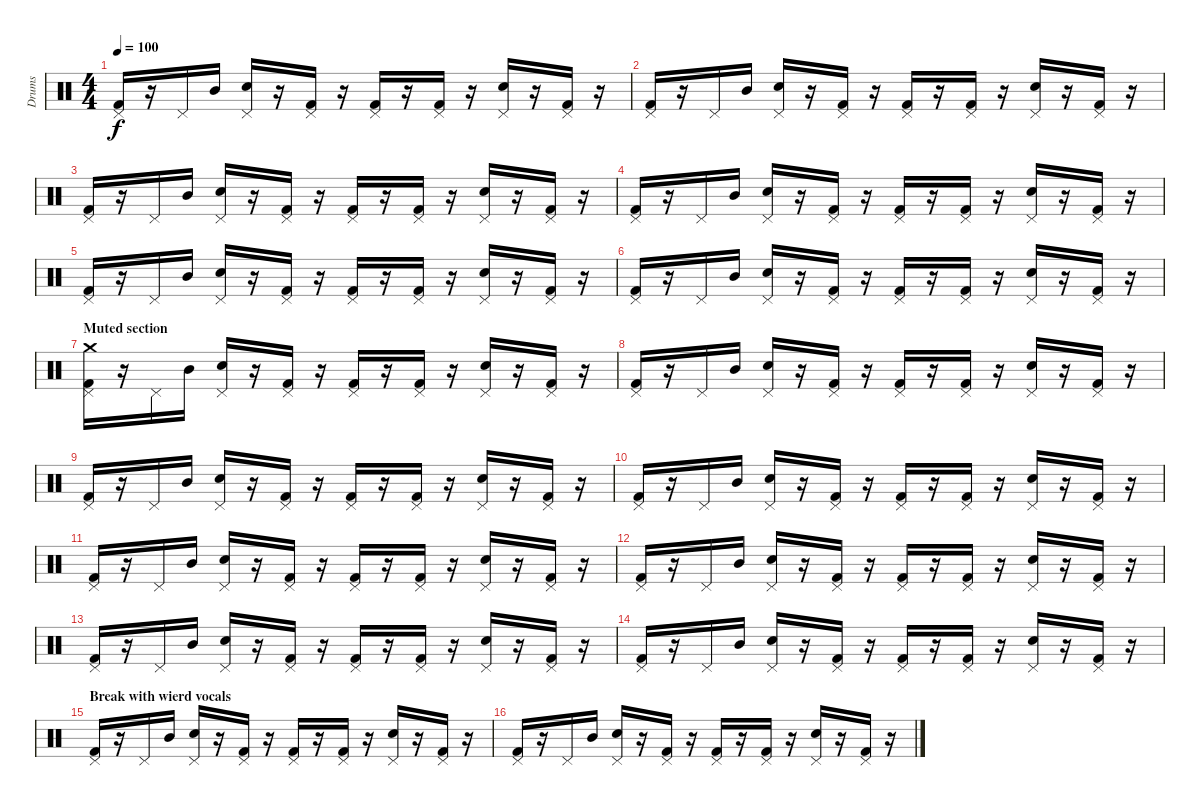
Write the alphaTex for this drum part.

\track ("Drums" "Drums") {instrument percussion}
\staff {score}
\articulation defaults
\ts (4 4)
\tempo 100
\clef neutral
\ks c
("Kick (hit) 2" "Pedal Hi-Hat (hit)").16{dy f} r.16 "Pedal Hi-Hat (hit)".16 "Mid Tom (hit)".16 ("Pedal Hi-Hat (hit)" "Electric Snare (hit)").16 r.16 ("Kick (hit) 2" "Pedal Hi-Hat (hit)").16 r.16 ("Kick (hit) 2" "Pedal Hi-Hat (hit)").16 r.16 ("Kick (hit) 2" "Pedal Hi-Hat (hit)").16 r.16 ("Pedal Hi-Hat (hit)" "Electric Snare (hit)").16 r.16 ("Kick (hit) 2" "Pedal Hi-Hat (hit)").16 r.16 |
("Kick (hit) 2" "Pedal Hi-Hat (hit)").16 r.16 "Pedal Hi-Hat (hit)".16 "Mid Tom (hit)".16 ("Pedal Hi-Hat (hit)" "Electric Snare (hit)").16 r.16 ("Kick (hit) 2" "Pedal Hi-Hat (hit)").16 r.16 ("Kick (hit) 2" "Pedal Hi-Hat (hit)").16 r.16 ("Kick (hit) 2" "Pedal Hi-Hat (hit)").16 r.16 ("Pedal Hi-Hat (hit)" "Electric Snare (hit)").16 r.16 ("Kick (hit) 2" "Pedal Hi-Hat (hit)").16 r.16 |
("Kick (hit) 2" "Pedal Hi-Hat (hit)").16 r.16 "Pedal Hi-Hat (hit)".16 "Mid Tom (hit)".16 ("Pedal Hi-Hat (hit)" "Electric Snare (hit)").16 r.16 ("Kick (hit) 2" "Pedal Hi-Hat (hit)").16 r.16 ("Kick (hit) 2" "Pedal Hi-Hat (hit)").16 r.16 ("Kick (hit) 2" "Pedal Hi-Hat (hit)").16 r.16 ("Pedal Hi-Hat (hit)" "Electric Snare (hit)").16 r.16 ("Kick (hit) 2" "Pedal Hi-Hat (hit)").16 r.16 |
("Kick (hit) 2" "Pedal Hi-Hat (hit)").16 r.16 "Pedal Hi-Hat (hit)".16 "Mid Tom (hit)".16 ("Pedal Hi-Hat (hit)" "Electric Snare (hit)").16 r.16 ("Kick (hit) 2" "Pedal Hi-Hat (hit)").16 r.16 ("Kick (hit) 2" "Pedal Hi-Hat (hit)").16 r.16 ("Kick (hit) 2" "Pedal Hi-Hat (hit)").16 r.16 ("Pedal Hi-Hat (hit)" "Electric Snare (hit)").16 r.16 ("Kick (hit) 2" "Pedal Hi-Hat (hit)").16 r.16 |
("Kick (hit) 2" "Pedal Hi-Hat (hit)").16 r.16 "Pedal Hi-Hat (hit)".16 "Mid Tom (hit)".16 ("Pedal Hi-Hat (hit)" "Electric Snare (hit)").16 r.16 ("Kick (hit) 2" "Pedal Hi-Hat (hit)").16 r.16 ("Kick (hit) 2" "Pedal Hi-Hat (hit)").16 r.16 ("Kick (hit) 2" "Pedal Hi-Hat (hit)").16 r.16 ("Pedal Hi-Hat (hit)" "Electric Snare (hit)").16 r.16 ("Kick (hit) 2" "Pedal Hi-Hat (hit)").16 r.16 |
("Kick (hit) 2" "Pedal Hi-Hat (hit)").16 r.16 "Pedal Hi-Hat (hit)".16 "Mid Tom (hit)".16 ("Pedal Hi-Hat (hit)" "Electric Snare (hit)").16 r.16 ("Kick (hit) 2" "Pedal Hi-Hat (hit)").16 r.16 ("Kick (hit) 2" "Pedal Hi-Hat (hit)").16 r.16 ("Kick (hit) 2" "Pedal Hi-Hat (hit)").16 r.16 ("Pedal Hi-Hat (hit)" "Electric Snare (hit)").16 r.16 ("Kick (hit) 2" "Pedal Hi-Hat (hit)").16 r.16 |
\section ("" "Muted section")
("Kick (hit) 2" "Pedal Hi-Hat (hit)" "Crash medium (hit)").16 r.16 "Pedal Hi-Hat (hit)".16 "Mid Tom (hit)".16 ("Pedal Hi-Hat (hit)" "Electric Snare (hit)").16 r.16 ("Kick (hit) 2" "Pedal Hi-Hat (hit)").16 r.16 ("Kick (hit) 2" "Pedal Hi-Hat (hit)").16 r.16 ("Kick (hit) 2" "Pedal Hi-Hat (hit)").16 r.16 ("Pedal Hi-Hat (hit)" "Electric Snare (hit)").16 r.16 ("Kick (hit) 2" "Pedal Hi-Hat (hit)").16 r.16 |
("Kick (hit) 2" "Pedal Hi-Hat (hit)").16 r.16 "Pedal Hi-Hat (hit)".16 "Mid Tom (hit)".16 ("Pedal Hi-Hat (hit)" "Electric Snare (hit)").16 r.16 ("Kick (hit) 2" "Pedal Hi-Hat (hit)").16 r.16 ("Kick (hit) 2" "Pedal Hi-Hat (hit)").16 r.16 ("Kick (hit) 2" "Pedal Hi-Hat (hit)").16 r.16 ("Pedal Hi-Hat (hit)" "Electric Snare (hit)").16 r.16 ("Kick (hit) 2" "Pedal Hi-Hat (hit)").16 r.16 |
("Kick (hit) 2" "Pedal Hi-Hat (hit)").16 r.16 "Pedal Hi-Hat (hit)".16 "Mid Tom (hit)".16 ("Pedal Hi-Hat (hit)" "Electric Snare (hit)").16 r.16 ("Kick (hit) 2" "Pedal Hi-Hat (hit)").16 r.16 ("Kick (hit) 2" "Pedal Hi-Hat (hit)").16 r.16 ("Kick (hit) 2" "Pedal Hi-Hat (hit)").16 r.16 ("Pedal Hi-Hat (hit)" "Electric Snare (hit)").16 r.16 ("Kick (hit) 2" "Pedal Hi-Hat (hit)").16 r.16 |
("Kick (hit) 2" "Pedal Hi-Hat (hit)").16 r.16 "Pedal Hi-Hat (hit)".16 "Mid Tom (hit)".16 ("Pedal Hi-Hat (hit)" "Electric Snare (hit)").16 r.16 ("Kick (hit) 2" "Pedal Hi-Hat (hit)").16 r.16 ("Kick (hit) 2" "Pedal Hi-Hat (hit)").16 r.16 ("Kick (hit) 2" "Pedal Hi-Hat (hit)").16 r.16 ("Pedal Hi-Hat (hit)" "Electric Snare (hit)").16 r.16 ("Kick (hit) 2" "Pedal Hi-Hat (hit)").16 r.16 |
("Kick (hit) 2" "Pedal Hi-Hat (hit)").16 r.16 "Pedal Hi-Hat (hit)".16 "Mid Tom (hit)".16 ("Pedal Hi-Hat (hit)" "Electric Snare (hit)").16 r.16 ("Kick (hit) 2" "Pedal Hi-Hat (hit)").16 r.16 ("Kick (hit) 2" "Pedal Hi-Hat (hit)").16 r.16 ("Kick (hit) 2" "Pedal Hi-Hat (hit)").16 r.16 ("Pedal Hi-Hat (hit)" "Electric Snare (hit)").16 r.16 ("Kick (hit) 2" "Pedal Hi-Hat (hit)").16 r.16 |
("Kick (hit) 2" "Pedal Hi-Hat (hit)").16 r.16 "Pedal Hi-Hat (hit)".16 "Mid Tom (hit)".16 ("Pedal Hi-Hat (hit)" "Electric Snare (hit)").16 r.16 ("Kick (hit) 2" "Pedal Hi-Hat (hit)").16 r.16 ("Kick (hit) 2" "Pedal Hi-Hat (hit)").16 r.16 ("Kick (hit) 2" "Pedal Hi-Hat (hit)").16 r.16 ("Pedal Hi-Hat (hit)" "Electric Snare (hit)").16 r.16 ("Kick (hit) 2" "Pedal Hi-Hat (hit)").16 r.16 |
("Kick (hit) 2" "Pedal Hi-Hat (hit)").16 r.16 "Pedal Hi-Hat (hit)".16 "Mid Tom (hit)".16 ("Pedal Hi-Hat (hit)" "Electric Snare (hit)").16 r.16 ("Kick (hit) 2" "Pedal Hi-Hat (hit)").16 r.16 ("Kick (hit) 2" "Pedal Hi-Hat (hit)").16 r.16 ("Kick (hit) 2" "Pedal Hi-Hat (hit)").16 r.16 ("Pedal Hi-Hat (hit)" "Electric Snare (hit)").16 r.16 ("Kick (hit) 2" "Pedal Hi-Hat (hit)").16 r.16 |
("Kick (hit) 2" "Pedal Hi-Hat (hit)").16 r.16 "Pedal Hi-Hat (hit)".16 "Mid Tom (hit)".16 ("Pedal Hi-Hat (hit)" "Electric Snare (hit)").16 r.16 ("Kick (hit) 2" "Pedal Hi-Hat (hit)").16 r.16 ("Kick (hit) 2" "Pedal Hi-Hat (hit)").16 r.16 ("Kick (hit) 2" "Pedal Hi-Hat (hit)").16 r.16 ("Pedal Hi-Hat (hit)" "Electric Snare (hit)").16 r.16 ("Kick (hit) 2" "Pedal Hi-Hat (hit)").16 r.16 |
\section ("" "Break with wierd vocals")
("Kick (hit) 2" "Pedal Hi-Hat (hit)").16{volume 8} r.16 "Pedal Hi-Hat (hit)".16 "Mid Tom (hit)".16 ("Pedal Hi-Hat (hit)" "Electric Snare (hit)").16 r.16 ("Kick (hit) 2" "Pedal Hi-Hat (hit)").16 r.16 ("Kick (hit) 2" "Pedal Hi-Hat (hit)").16 r.16 ("Kick (hit) 2" "Pedal Hi-Hat (hit)").16 r.16 ("Pedal Hi-Hat (hit)" "Electric Snare (hit)").16 r.16 ("Kick (hit) 2" "Pedal Hi-Hat (hit)").16 r.16 |
("Kick (hit) 2" "Pedal Hi-Hat (hit)").16{volume 6} r.16 "Pedal Hi-Hat (hit)".16 "Mid Tom (hit)".16 ("Pedal Hi-Hat (hit)" "Electric Snare (hit)").16 r.16 ("Kick (hit) 2" "Pedal Hi-Hat (hit)").16 r.16 ("Kick (hit) 2" "Pedal Hi-Hat (hit)").16 r.16 ("Kick (hit) 2" "Pedal Hi-Hat (hit)").16 r.16 ("Pedal Hi-Hat (hit)" "Electric Snare (hit)").16 r.16 ("Kick (hit) 2" "Pedal Hi-Hat (hit)").16 r.16
